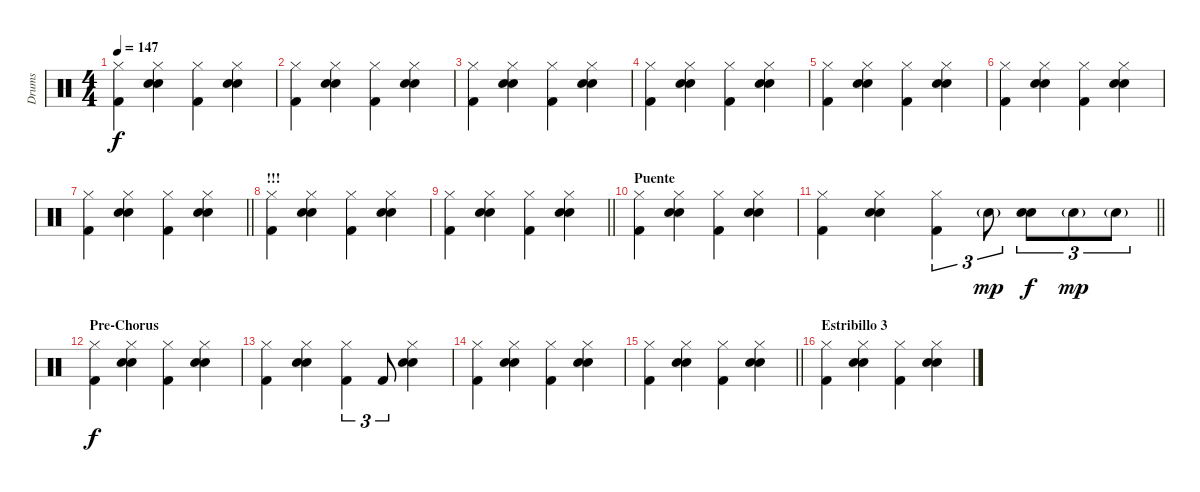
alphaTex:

\track ("Drums" "Drums") {instrument percussion}
\staff {score}
\articulation defaults
\ts (4 4)
\tempo 147
\clef neutral
\ks c
("Hi-Hat (closed)" "Kick (hit) 2").4{dy f} ("Hi-Hat (closed)" "Electric Snare (hit)" "Hand Clap (hit)").4 ("Hi-Hat (closed)" "Kick (hit) 2").4 ("Hi-Hat (closed)" "Electric Snare (hit)" "Hand Clap (hit)").4 |
("Hi-Hat (closed)" "Kick (hit) 2").4 ("Hi-Hat (closed)" "Electric Snare (hit)" "Hand Clap (hit)").4 ("Hi-Hat (closed)" "Kick (hit) 2").4 ("Hi-Hat (closed)" "Electric Snare (hit)" "Hand Clap (hit)").4 |
("Hi-Hat (closed)" "Kick (hit) 2").4 ("Hi-Hat (closed)" "Electric Snare (hit)" "Hand Clap (hit)").4 ("Hi-Hat (closed)" "Kick (hit) 2").4 ("Hi-Hat (closed)" "Electric Snare (hit)" "Hand Clap (hit)").4 |
("Hi-Hat (closed)" "Kick (hit) 2").4 ("Hi-Hat (closed)" "Electric Snare (hit)" "Hand Clap (hit)").4 ("Hi-Hat (closed)" "Kick (hit) 2").4 ("Hi-Hat (closed)" "Electric Snare (hit)" "Hand Clap (hit)").4 |
("Hi-Hat (closed)" "Kick (hit) 2").4 ("Hi-Hat (closed)" "Electric Snare (hit)" "Hand Clap (hit)").4 ("Hi-Hat (closed)" "Kick (hit) 2").4 ("Hi-Hat (closed)" "Electric Snare (hit)" "Hand Clap (hit)").4 |
("Hi-Hat (closed)" "Kick (hit) 2").4 ("Hi-Hat (closed)" "Electric Snare (hit)" "Hand Clap (hit)").4 ("Hi-Hat (closed)" "Kick (hit) 2").4 ("Hi-Hat (closed)" "Electric Snare (hit)" "Hand Clap (hit)").4 |
\barLineRight lightlight
("Hi-Hat (closed)" "Kick (hit) 2").4 ("Hi-Hat (closed)" "Electric Snare (hit)" "Hand Clap (hit)").4 ("Hi-Hat (closed)" "Kick (hit) 2").4 ("Hi-Hat (closed)" "Electric Snare (hit)" "Hand Clap (hit)").4 |
\section ("" "!!!")
("Hi-Hat (closed)" "Kick (hit) 2").4 ("Hi-Hat (closed)" "Electric Snare (hit)" "Hand Clap (hit)").4 ("Hi-Hat (closed)" "Kick (hit) 2").4 ("Hi-Hat (closed)" "Electric Snare (hit)" "Hand Clap (hit)").4 |
\barLineRight lightlight
("Hi-Hat (closed)" "Kick (hit) 2").4 ("Hi-Hat (closed)" "Electric Snare (hit)" "Hand Clap (hit)").4 ("Hi-Hat (closed)" "Kick (hit) 2").4 ("Hi-Hat (closed)" "Electric Snare (hit)" "Hand Clap (hit)").4 |
\section ("" "Puente")
("Hi-Hat (closed)" "Kick (hit) 2").4 ("Hi-Hat (closed)" "Electric Snare (hit)" "Hand Clap (hit)").4 ("Hi-Hat (closed)" "Kick (hit) 2").4 ("Hi-Hat (closed)" "Electric Snare (hit)" "Hand Clap (hit)").4 |
\barLineRight lightlight
("Hi-Hat (closed)" "Kick (hit) 2").4 ("Hi-Hat (closed)" "Electric Snare (hit)" "Hand Clap (hit)").4 ("Hi-Hat (closed)" "Kick (hit) 2").4{tu (3 2)} "Electric Snare (hit)"{g}.8{tu (3 2) dy mp} ("Electric Snare (hit)" "Hand Clap (hit)").8{tu (3 2) dy f} "Electric Snare (hit)"{g}.8{tu (3 2) dy mp} "Electric Snare (hit)"{g}.8{tu (3 2)} |
\section ("" "Pre-Chorus")
("Hi-Hat (closed)" "Kick (hit) 2").4{dy f} ("Hi-Hat (closed)" "Electric Snare (hit)" "Hand Clap (hit)").4 ("Hi-Hat (closed)" "Kick (hit) 2").4 ("Hi-Hat (closed)" "Electric Snare (hit)" "Hand Clap (hit)").4 |
("Hi-Hat (closed)" "Kick (hit) 2").4 ("Hi-Hat (closed)" "Electric Snare (hit)" "Hand Clap (hit)").4 ("Hi-Hat (closed)" "Kick (hit) 2").4{tu (3 2)} "Kick (hit) 2".8{tu (3 2)} ("Hi-Hat (closed)" "Electric Snare (hit)" "Hand Clap (hit)").4 |
("Hi-Hat (closed)" "Kick (hit) 2").4 ("Hi-Hat (closed)" "Electric Snare (hit)" "Hand Clap (hit)").4 ("Hi-Hat (closed)" "Kick (hit) 2").4 ("Hi-Hat (closed)" "Electric Snare (hit)" "Hand Clap (hit)").4 |
\barLineRight lightlight
("Hi-Hat (closed)" "Kick (hit) 2").4 ("Hi-Hat (closed)" "Electric Snare (hit)" "Hand Clap (hit)").4 ("Hi-Hat (closed)" "Kick (hit) 2").4 ("Hi-Hat (closed)" "Electric Snare (hit)" "Hand Clap (hit)").4 |
\section ("" "Estribillo 3")
("Hi-Hat (closed)" "Kick (hit) 2").4 ("Hi-Hat (closed)" "Electric Snare (hit)" "Hand Clap (hit)").4 ("Hi-Hat (closed)" "Kick (hit) 2").4 ("Hi-Hat (closed)" "Electric Snare (hit)" "Hand Clap (hit)").4
